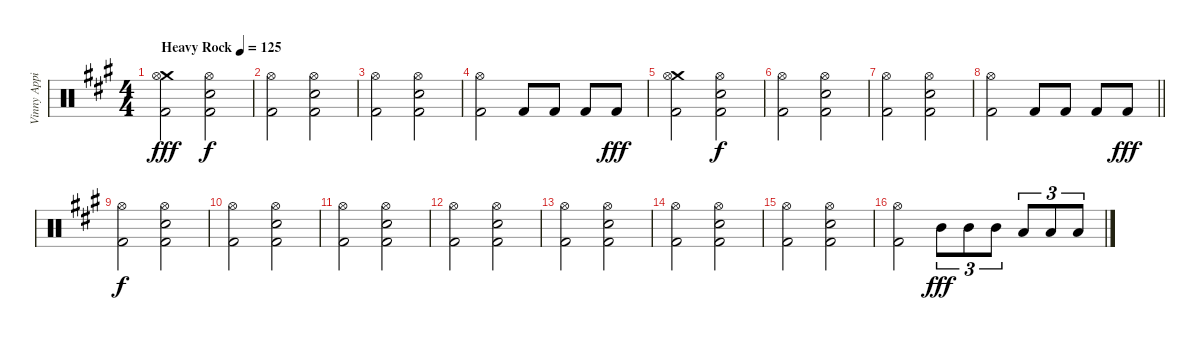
\track ("Vinny Appice" "Vinny Appi") {instrument percussion}
\staff {score}
\articulation defaults
\ts (4 4)
\tempo (125 "Heavy Rock")
\clef neutral
\ks a
("Crash medium (hit)" "Hi-Hat (open)" "Kick (hit) 2").2{dy fff} ("Hi-Hat (open)" "Snare (hit) 2" "Kick (hit) 2").2{dy f} |
("Hi-Hat (open)" "Kick (hit) 2").2 ("Hi-Hat (open)" "Snare (hit) 2" "Kick (hit) 2").2 |
("Hi-Hat (open)" "Kick (hit) 2").2 ("Hi-Hat (open)" "Snare (hit) 2" "Kick (hit) 2").2 |
("Hi-Hat (open)" "Kick (hit) 2").2 "Kick (hit) 2".8 "Kick (hit) 2".8 "Kick (hit) 2".8 "Kick (hit) 2".8{dy fff} |
("Crash medium (hit)" "Hi-Hat (open)" "Kick (hit) 2").2 ("Hi-Hat (open)" "Snare (hit) 2" "Kick (hit) 2").2{dy f} |
("Hi-Hat (open)" "Kick (hit) 2").2 ("Hi-Hat (open)" "Snare (hit) 2" "Kick (hit) 2").2 |
("Hi-Hat (open)" "Kick (hit) 2").2 ("Hi-Hat (open)" "Snare (hit) 2" "Kick (hit) 2").2 |
\barLineRight lightlight
("Hi-Hat (open)" "Kick (hit) 2").2 "Kick (hit) 2".8 "Kick (hit) 2".8 "Kick (hit) 2".8 "Kick (hit) 2".8{dy fff} |
("Hi-Hat (open)" "Kick (hit) 2").2{dy f} ("Hi-Hat (open)" "Snare (hit) 2" "Kick (hit) 2").2 |
("Hi-Hat (open)" "Kick (hit) 2").2 ("Hi-Hat (open)" "Snare (hit) 2" "Kick (hit) 2").2 |
("Hi-Hat (open)" "Kick (hit) 2").2 ("Hi-Hat (open)" "Snare (hit) 2" "Kick (hit) 2").2 |
("Hi-Hat (open)" "Kick (hit) 2").2 ("Hi-Hat (open)" "Snare (hit) 2" "Kick (hit) 2").2 |
("Hi-Hat (open)" "Kick (hit) 2").2 ("Hi-Hat (open)" "Snare (hit) 2" "Kick (hit) 2").2 |
("Hi-Hat (open)" "Kick (hit) 2").2 ("Hi-Hat (open)" "Snare (hit) 2" "Kick (hit) 2").2 |
("Hi-Hat (open)" "Kick (hit) 2").2 ("Hi-Hat (open)" "Snare (hit) 2" "Kick (hit) 2").2 |
("Hi-Hat (open)" "Kick (hit) 2").2 "Mid Tom (hit)".8{tu (3 2) dy fff} "Mid Tom (hit)".8{tu (3 2)} "Mid Tom (hit)".8{tu (3 2)} "Low Tom (hit)".8{tu (3 2)} "Low Tom (hit)".8{tu (3 2)} "Low Tom (hit)".8{tu (3 2)}
